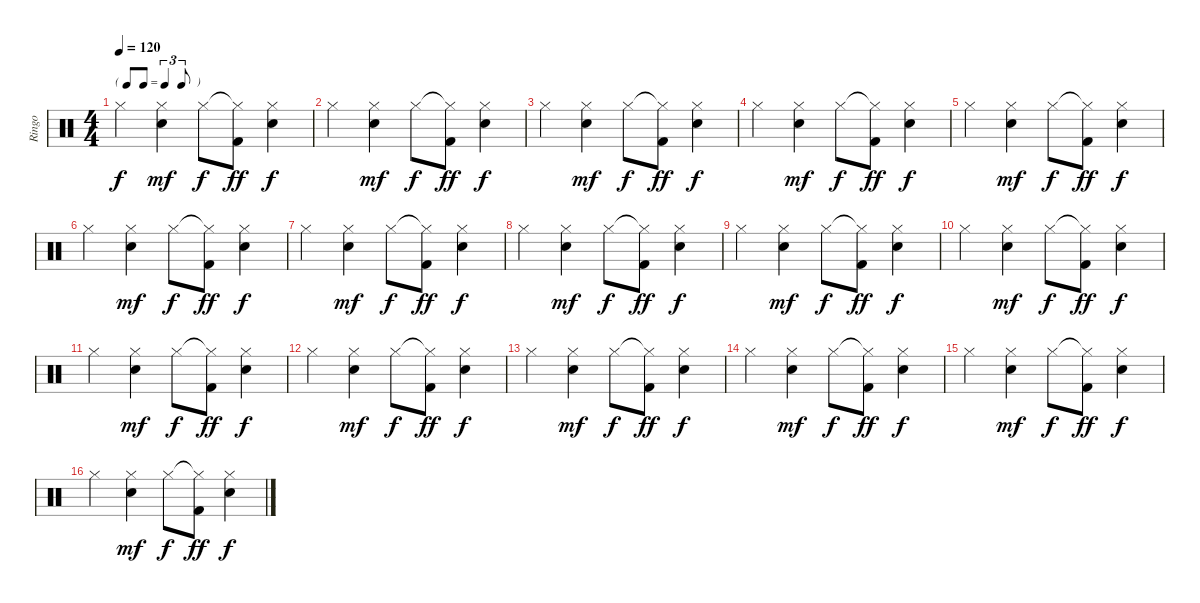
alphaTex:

\track ("Ringo" "Ringo") {instrument percussion}
\staff {score}
\articulation defaults
\ts (4 4)
\tf triplet8th
\tempo 120
\clef neutral
\ks c "Hi-Hat (closed)".4{dy f}
("Hi-Hat (closed)" "Snare (hit) 2").4{dy mf} "Hi-Hat (closed)".8{dy f} ("Hi-Hat (closed)"{t} "Kick (hit) 2").8{dy ff} ("Hi-Hat (closed)" "Snare (hit) 2").4{dy f} |
"Hi-Hat (closed)".4 ("Hi-Hat (closed)" "Snare (hit) 2").4{dy mf} "Hi-Hat (closed)".8{dy f} ("Hi-Hat (closed)"{t} "Kick (hit) 2").8{dy ff} ("Hi-Hat (closed)" "Snare (hit) 2").4{dy f} |
"Hi-Hat (closed)".4 ("Hi-Hat (closed)" "Snare (hit) 2").4{dy mf} "Hi-Hat (closed)".8{dy f} ("Hi-Hat (closed)"{t} "Kick (hit) 2").8{dy ff} ("Hi-Hat (closed)" "Snare (hit) 2").4{dy f} |
"Hi-Hat (closed)".4 ("Hi-Hat (closed)" "Snare (hit) 2").4{dy mf} "Hi-Hat (closed)".8{dy f} ("Hi-Hat (closed)"{t} "Kick (hit) 2").8{dy ff} ("Hi-Hat (closed)" "Snare (hit) 2").4{dy f} |
"Hi-Hat (closed)".4 ("Hi-Hat (closed)" "Snare (hit) 2").4{dy mf} "Hi-Hat (closed)".8{dy f} ("Hi-Hat (closed)"{t} "Kick (hit) 2").8{dy ff} ("Hi-Hat (closed)" "Snare (hit) 2").4{dy f} |
"Hi-Hat (closed)".4 ("Hi-Hat (closed)" "Snare (hit) 2").4{dy mf} "Hi-Hat (closed)".8{dy f} ("Hi-Hat (closed)"{t} "Kick (hit) 2").8{dy ff} ("Hi-Hat (closed)" "Snare (hit) 2").4{dy f} |
"Hi-Hat (closed)".4 ("Hi-Hat (closed)" "Snare (hit) 2").4{dy mf} "Hi-Hat (closed)".8{dy f} ("Hi-Hat (closed)"{t} "Kick (hit) 2").8{dy ff} ("Hi-Hat (closed)" "Snare (hit) 2").4{dy f} |
"Hi-Hat (closed)".4 ("Hi-Hat (closed)" "Snare (hit) 2").4{dy mf} "Hi-Hat (closed)".8{dy f} ("Hi-Hat (closed)"{t} "Kick (hit) 2").8{dy ff} ("Hi-Hat (closed)" "Snare (hit) 2").4{dy f} |
"Hi-Hat (closed)".4 ("Hi-Hat (closed)" "Snare (hit) 2").4{dy mf} "Hi-Hat (closed)".8{dy f} ("Hi-Hat (closed)"{t} "Kick (hit) 2").8{dy ff} ("Hi-Hat (closed)" "Snare (hit) 2").4{dy f} |
"Hi-Hat (closed)".4 ("Hi-Hat (closed)" "Snare (hit) 2").4{dy mf} "Hi-Hat (closed)".8{dy f} ("Hi-Hat (closed)"{t} "Kick (hit) 2").8{dy ff} ("Hi-Hat (closed)" "Snare (hit) 2").4{dy f} |
"Hi-Hat (closed)".4 ("Hi-Hat (closed)" "Snare (hit) 2").4{dy mf} "Hi-Hat (closed)".8{dy f} ("Hi-Hat (closed)"{t} "Kick (hit) 2").8{dy ff} ("Hi-Hat (closed)" "Snare (hit) 2").4{dy f} |
"Hi-Hat (closed)".4 ("Hi-Hat (closed)" "Snare (hit) 2").4{dy mf} "Hi-Hat (closed)".8{dy f} ("Hi-Hat (closed)"{t} "Kick (hit) 2").8{dy ff} ("Hi-Hat (closed)" "Snare (hit) 2").4{dy f} |
"Hi-Hat (closed)".4 ("Hi-Hat (closed)" "Snare (hit) 2").4{dy mf} "Hi-Hat (closed)".8{dy f} ("Hi-Hat (closed)"{t} "Kick (hit) 2").8{dy ff} ("Hi-Hat (closed)" "Snare (hit) 2").4{dy f} |
"Hi-Hat (closed)".4 ("Hi-Hat (closed)" "Snare (hit) 2").4{dy mf} "Hi-Hat (closed)".8{dy f} ("Hi-Hat (closed)"{t} "Kick (hit) 2").8{dy ff} ("Hi-Hat (closed)" "Snare (hit) 2").4{dy f} |
"Hi-Hat (closed)".4 ("Hi-Hat (closed)" "Snare (hit) 2").4{dy mf} "Hi-Hat (closed)".8{dy f} ("Hi-Hat (closed)"{t} "Kick (hit) 2").8{dy ff} ("Hi-Hat (closed)" "Snare (hit) 2").4{dy f} |
"Hi-Hat (closed)".4 ("Hi-Hat (closed)" "Snare (hit) 2").4{dy mf} "Hi-Hat (closed)".8{dy f} ("Hi-Hat (closed)"{t} "Kick (hit) 2").8{dy ff} ("Hi-Hat (closed)" "Snare (hit) 2").4{dy f}
